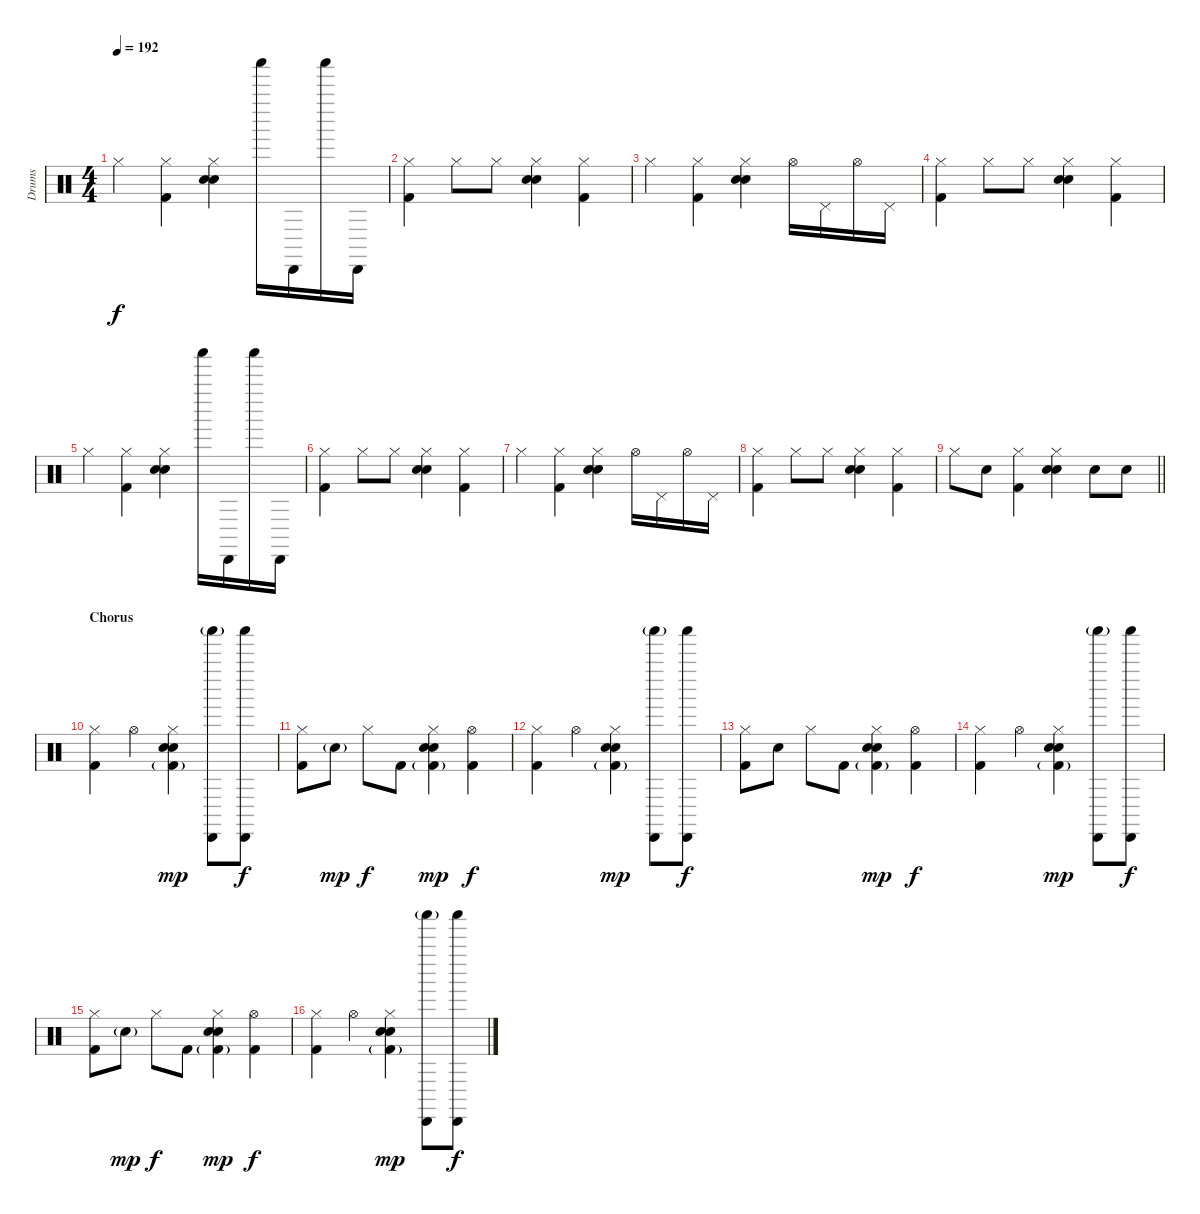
\track ("Drums" "Drums") {instrument percussion}
\staff {score}
\articulation defaults
\ts (4 4)
\tempo 192
\clef neutral
\ks c "Hi-Hat (closed)".4{dy f}
("Hi-Hat (closed)" "Kick (hit) 2").4 ("Hi-Hat (closed)" "Electric Snare (hit)" "Hand Clap (hit)").4 "Shaker (hit)".16 "Cabasa (hit)".16 "Shaker (hit)".16 "Cabasa (hit)".16 |
("Hi-Hat (closed)" "Kick (hit) 2").4 "Hi-Hat (closed)".8 "Hi-Hat (closed)".8 ("Hi-Hat (closed)" "Electric Snare (hit)" "Hand Clap (hit)").4 ("Hi-Hat (closed)" "Kick (hit) 2").4 |
"Hi-Hat (closed)".4 ("Hi-Hat (closed)" "Kick (hit) 2").4 ("Hi-Hat (closed)" "Electric Snare (hit)" "Hand Clap (hit)").4 "Hi-Hat (open)".16 "Pedal Hi-Hat (hit)".16 "Hi-Hat (open)".16 "Pedal Hi-Hat (hit)".16 |
("Hi-Hat (closed)" "Kick (hit) 2").4 "Hi-Hat (closed)".8 "Hi-Hat (closed)".8 ("Hi-Hat (closed)" "Electric Snare (hit)" "Hand Clap (hit)").4 ("Hi-Hat (closed)" "Kick (hit) 2").4 |
"Hi-Hat (closed)".4 ("Hi-Hat (closed)" "Kick (hit) 2").4 ("Hi-Hat (closed)" "Electric Snare (hit)" "Hand Clap (hit)").4 "Shaker (hit)".16 "Cabasa (hit)".16 "Shaker (hit)".16 "Cabasa (hit)".16 |
("Hi-Hat (closed)" "Kick (hit) 2").4 "Hi-Hat (closed)".8 "Hi-Hat (closed)".8 ("Hi-Hat (closed)" "Electric Snare (hit)" "Hand Clap (hit)").4 ("Hi-Hat (closed)" "Kick (hit) 2").4 |
"Hi-Hat (closed)".4 ("Hi-Hat (closed)" "Kick (hit) 2").4 ("Hi-Hat (closed)" "Electric Snare (hit)" "Hand Clap (hit)").4 "Hi-Hat (open)".16 "Pedal Hi-Hat (hit)".16 "Hi-Hat (open)".16 "Pedal Hi-Hat (hit)".16 |
("Hi-Hat (closed)" "Kick (hit) 2").4 "Hi-Hat (closed)".8 "Hi-Hat (closed)".8 ("Hi-Hat (closed)" "Electric Snare (hit)" "Hand Clap (hit)").4 ("Hi-Hat (closed)" "Kick (hit) 2").4 |
\barLineRight lightlight "Hi-Hat (closed)".8 "Electric Snare (hit)".8
("Hi-Hat (closed)" "Kick (hit) 2").4 ("Hi-Hat (closed)" "Electric Snare (hit)" "Hand Clap (hit)").4 "Electric Snare (hit)".8 "Electric Snare (hit)".8 |
\section ("" "Chorus")
("Hi-Hat (closed)" "Kick (hit) 2").4 "Hi-Hat (open)".4 ("Hi-Hat (closed)" "Hand Clap (hit)" "Electric Snare (hit)" "Kick (hit) 2"{g}).4{dy mp} ("Shaker (hit)"{g} "Cabasa (hit)").8 ("Shaker (hit)" "Cabasa (hit)").8{dy f} |
("Hi-Hat (closed)" "Kick (hit) 2").8 "Electric Snare (hit)"{g}.8{dy mp} "Hi-Hat (closed)".8{dy f} "Kick (hit) 2".8 ("Hi-Hat (closed)" "Hand Clap (hit)" "Electric Snare (hit)" "Kick (hit) 2"{g}).4{dy mp} ("Hi-Hat (open)" "Kick (hit) 2").4{dy f} |
("Hi-Hat (closed)" "Kick (hit) 2").4 "Hi-Hat (open)".4 ("Hi-Hat (closed)" "Hand Clap (hit)" "Electric Snare (hit)" "Kick (hit) 2"{g}).4{dy mp} ("Shaker (hit)"{g} "Cabasa (hit)").8 ("Shaker (hit)" "Cabasa (hit)").8{dy f} |
("Hi-Hat (closed)" "Kick (hit) 2").8 "Electric Snare (hit)".8 "Hi-Hat (closed)".8 "Kick (hit) 2".8 ("Hi-Hat (closed)" "Hand Clap (hit)" "Electric Snare (hit)" "Kick (hit) 2"{g}).4{dy mp} ("Hi-Hat (open)" "Kick (hit) 2").4{dy f} |
("Hi-Hat (closed)" "Kick (hit) 2").4 "Hi-Hat (open)".4 ("Hi-Hat (closed)" "Hand Clap (hit)" "Electric Snare (hit)" "Kick (hit) 2"{g}).4{dy mp} ("Shaker (hit)"{g} "Cabasa (hit)").8 ("Shaker (hit)" "Cabasa (hit)").8{dy f} |
("Hi-Hat (closed)" "Kick (hit) 2").8 "Electric Snare (hit)"{g}.8{dy mp} "Hi-Hat (closed)".8{dy f} "Kick (hit) 2".8 ("Hi-Hat (closed)" "Hand Clap (hit)" "Electric Snare (hit)" "Kick (hit) 2"{g}).4{dy mp} ("Hi-Hat (open)" "Kick (hit) 2").4{dy f} |
("Hi-Hat (closed)" "Kick (hit) 2").4 "Hi-Hat (open)".4 ("Hi-Hat (closed)" "Hand Clap (hit)" "Electric Snare (hit)" "Kick (hit) 2"{g}).4{dy mp} ("Shaker (hit)"{g} "Cabasa (hit)").8 ("Shaker (hit)" "Cabasa (hit)").8{dy f}
